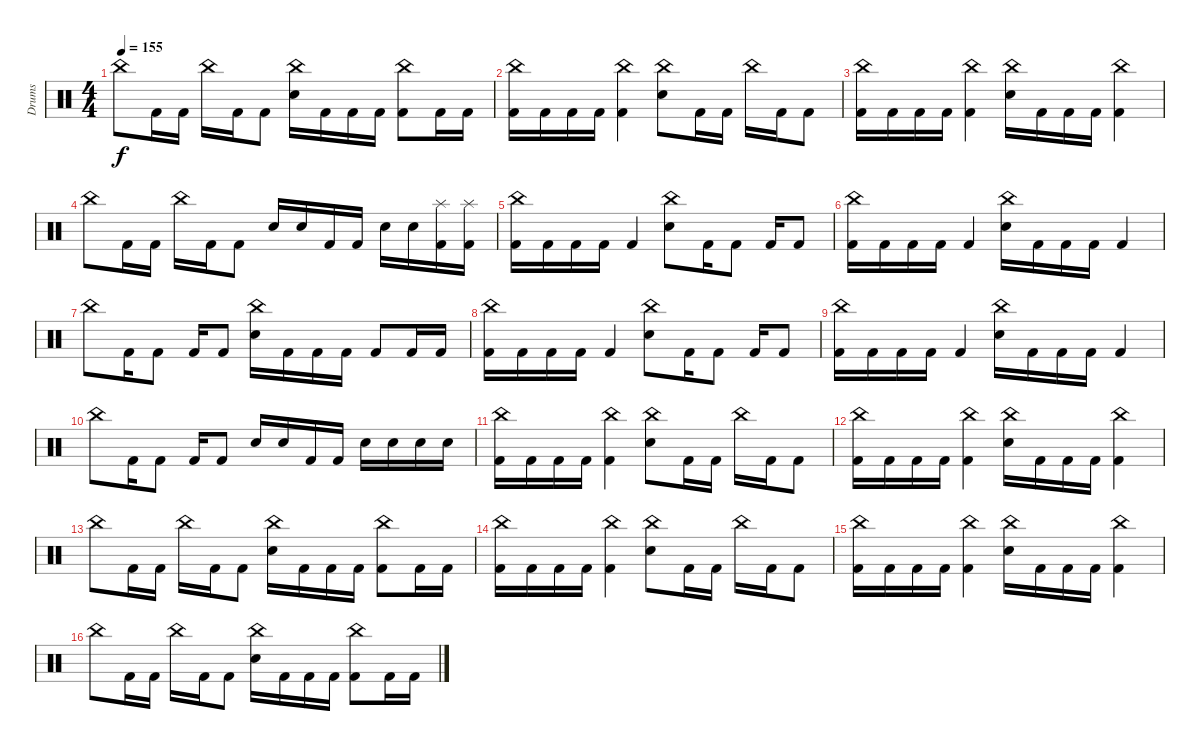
\track ("Drums" "Drums") {instrument percussion}
\staff {score}
\articulation defaults
\ts (4 4)
\tempo 155
\clef neutral
\ks c "China (hit)".8{dy f} "Kick (hit) 2".16 "Kick (hit) 2".16 "China (hit)".16 "Kick (hit) 2".16 "Kick (hit) 2".8
("China (hit)" "Electric Snare (hit)").16 "Kick (hit) 2".16 "Kick (hit) 2".16 "Kick (hit) 2".16 ("China (hit)" "Kick (hit) 2").8 "Kick (hit) 2".16 "Kick (hit) 2".16 |
("China (hit)" "Kick (hit) 2").16 "Kick (hit) 2".16 "Kick (hit) 2".16 "Kick (hit) 2".16 ("China (hit)" "Kick (hit) 2").4 ("China (hit)" "Electric Snare (hit)").8 "Kick (hit) 2".16 "Kick (hit) 2".16 "China (hit)".16 "Kick (hit) 2".16 "Kick (hit) 2".8 |
("China (hit)" "Kick (hit) 2").16 "Kick (hit) 2".16 "Kick (hit) 2".16 "Kick (hit) 2".16 ("China (hit)" "Kick (hit) 2").4 ("China (hit)" "Electric Snare (hit)").16 "Kick (hit) 2".16 "Kick (hit) 2".16 "Kick (hit) 2".16 ("China (hit)" "Kick (hit) 2").4 |
"China (hit)".8 "Kick (hit) 2".16 "Kick (hit) 2".16 "China (hit)".16 "Kick (hit) 2".16 "Kick (hit) 2".8 "Electric Snare (hit)".16 "Electric Snare (hit)".16 "Kick (hit) 2".16 "Kick (hit) 2".16 "Electric Snare (hit)".16 "Electric Snare (hit)".16 ("Splash (hit)" "Kick (hit) 2").16 ("Splash (hit)" "Kick (hit) 2").16 |
("China (hit)" "Kick (hit) 2").16 "Kick (hit) 2".16 "Kick (hit) 2".16 "Kick (hit) 2".16 "Kick (hit) 2".4 ("China (hit)" "Electric Snare (hit)").8 "Kick (hit) 2".16 "Kick (hit) 2".8 "Kick (hit) 2".16 "Kick (hit) 2".8 |
("China (hit)" "Kick (hit) 2").16 "Kick (hit) 2".16 "Kick (hit) 2".16 "Kick (hit) 2".16 "Kick (hit) 2".4 ("China (hit)" "Electric Snare (hit)").16 "Kick (hit) 2".16 "Kick (hit) 2".16 "Kick (hit) 2".16 "Kick (hit) 2".4 |
"China (hit)".8 "Kick (hit) 2".16 "Kick (hit) 2".8 "Kick (hit) 2".16 "Kick (hit) 2".8 ("China (hit)" "Electric Snare (hit)").16 "Kick (hit) 2".16 "Kick (hit) 2".16 "Kick (hit) 2".16 "Kick (hit) 2".8 "Kick (hit) 2".16 "Kick (hit) 2".16 |
("China (hit)" "Kick (hit) 2").16 "Kick (hit) 2".16 "Kick (hit) 2".16 "Kick (hit) 2".16 "Kick (hit) 2".4 ("China (hit)" "Electric Snare (hit)").8 "Kick (hit) 2".16 "Kick (hit) 2".8 "Kick (hit) 2".16 "Kick (hit) 2".8 |
("China (hit)" "Kick (hit) 2").16 "Kick (hit) 2".16 "Kick (hit) 2".16 "Kick (hit) 2".16 "Kick (hit) 2".4 ("China (hit)" "Electric Snare (hit)").16 "Kick (hit) 2".16 "Kick (hit) 2".16 "Kick (hit) 2".16 "Kick (hit) 2".4 |
"China (hit)".8 "Kick (hit) 2".16 "Kick (hit) 2".8 "Kick (hit) 2".16 "Kick (hit) 2".8 "Electric Snare (hit)".16 "Electric Snare (hit)".16 "Kick (hit) 2".16 "Kick (hit) 2".16 "Electric Snare (hit)".16 "Electric Snare (hit)".16 "Electric Snare (hit)".16 "Electric Snare (hit)".16 |
("China (hit)" "Kick (hit) 2").16 "Kick (hit) 2".16 "Kick (hit) 2".16 "Kick (hit) 2".16 ("China (hit)" "Kick (hit) 2").4 ("China (hit)" "Electric Snare (hit)").8 "Kick (hit) 2".16 "Kick (hit) 2".16 "China (hit)".16 "Kick (hit) 2".16 "Kick (hit) 2".8 |
("China (hit)" "Kick (hit) 2").16 "Kick (hit) 2".16 "Kick (hit) 2".16 "Kick (hit) 2".16 ("China (hit)" "Kick (hit) 2").4 ("China (hit)" "Electric Snare (hit)").16 "Kick (hit) 2".16 "Kick (hit) 2".16 "Kick (hit) 2".16 ("China (hit)" "Kick (hit) 2").4 |
"China (hit)".8 "Kick (hit) 2".16 "Kick (hit) 2".16 "China (hit)".16 "Kick (hit) 2".16 "Kick (hit) 2".8 ("China (hit)" "Electric Snare (hit)").16 "Kick (hit) 2".16 "Kick (hit) 2".16 "Kick (hit) 2".16 ("China (hit)" "Kick (hit) 2").8 "Kick (hit) 2".16 "Kick (hit) 2".16 |
("China (hit)" "Kick (hit) 2").16 "Kick (hit) 2".16 "Kick (hit) 2".16 "Kick (hit) 2".16 ("China (hit)" "Kick (hit) 2").4 ("China (hit)" "Electric Snare (hit)").8 "Kick (hit) 2".16 "Kick (hit) 2".16 "China (hit)".16 "Kick (hit) 2".16 "Kick (hit) 2".8 |
("China (hit)" "Kick (hit) 2").16 "Kick (hit) 2".16 "Kick (hit) 2".16 "Kick (hit) 2".16 ("China (hit)" "Kick (hit) 2").4 ("China (hit)" "Electric Snare (hit)").16 "Kick (hit) 2".16 "Kick (hit) 2".16 "Kick (hit) 2".16 ("China (hit)" "Kick (hit) 2").4 |
"China (hit)".8 "Kick (hit) 2".16 "Kick (hit) 2".16 "China (hit)".16 "Kick (hit) 2".16 "Kick (hit) 2".8 ("China (hit)" "Electric Snare (hit)").16 "Kick (hit) 2".16 "Kick (hit) 2".16 "Kick (hit) 2".16 ("China (hit)" "Kick (hit) 2").8 "Kick (hit) 2".16 "Kick (hit) 2".16
